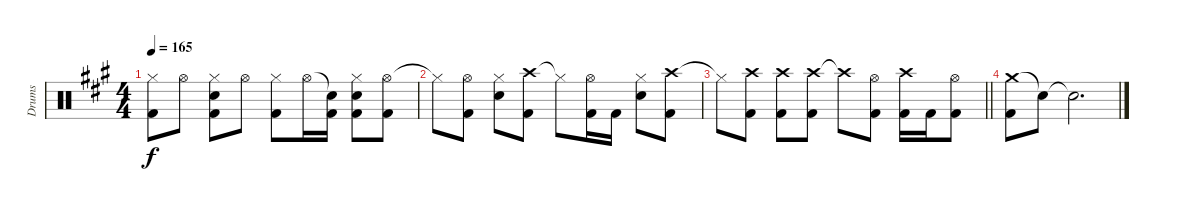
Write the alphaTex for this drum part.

\track ("Drums" "Drums") {instrument percussion}
\staff {score}
\articulation defaults
\ts (4 4)
\tempo 165
\clef neutral
\ks a
("Hi-Hat (closed)" "Kick (hit) 2").8{dy f} "Hi-Hat (open)".8 ("Hi-Hat (closed)" "Snare (hit) 2" "Kick (hit) 2").8 "Hi-Hat (open)".8 ("Hi-Hat (closed)" "Kick (hit) 2").8 "Hi-Hat (open)".16 ("Snare (hit)"{t} "Kick (hit) 2").16 ("Hi-Hat (closed)" "Snare (hit) 2" "Kick (hit) 2").8 ("Hi-Hat (open)" "Kick (hit) 2").8 |
"Hi-Hat (closed)"{t}.8 ("Hi-Hat (open)" "Kick (hit) 2").8 ("Hi-Hat (closed)" "Snare (hit) 2").8 ("Crash high (hit)" "Kick (hit) 2").8 "Hi-Hat (closed)"{t}.8 ("Hi-Hat (open)" "Kick (hit) 2").16 "Kick (hit) 2".16 ("Hi-Hat (closed)" "Snare (hit) 2").8 ("Crash high (hit)" "Kick (hit) 2").8 |
\barLineRight lightlight "Hi-Hat (closed)"{t}.8
("Crash high (hit)" "Kick (hit) 2").8 ("Crash high (hit)" "Kick (hit) 2").8 ("Crash high (hit)" "Kick (hit) 2").8 "Crash high (hit)"{t}.8 ("Hi-Hat (open)" "Kick (hit) 2").8 ("Crash high (hit)" "Kick (hit) 2").16 "Kick (hit) 2".16 ("Hi-Hat (open)" "Kick (hit) 2").8 |
("Crash medium (hit)" "Kick (hit) 2").8 "Snare (hit)"{t}.8 "Snare (hit)"{t}.2{d}
